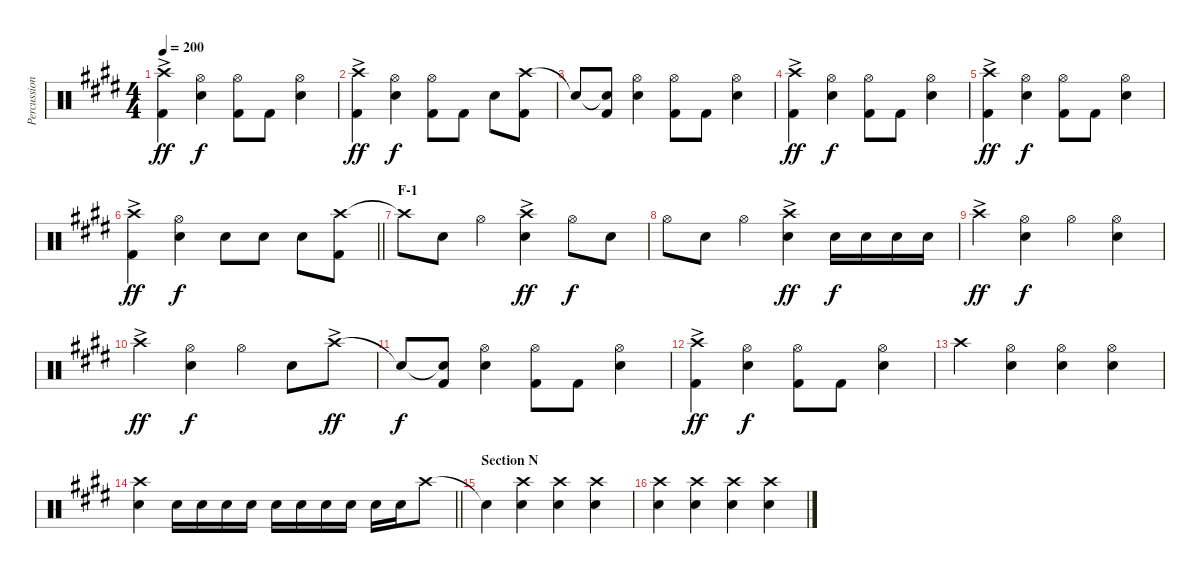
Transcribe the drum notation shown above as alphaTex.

\track ("Percussion - other" "Percussion") {instrument percussion}
\staff {score}
\articulation defaults
\ts (4 4)
\tempo 200
\clef neutral
\ks e
("Crash high (hit)"{ac} "Kick (hit) 2").4{dy ff} ("Hi-Hat (open)" "Snare (hit) 2").4{dy f} ("Hi-Hat (open)" "Kick (hit) 2").8 "Kick (hit) 2".8 ("Hi-Hat (open)" "Snare (hit) 2").4 |
("Crash high (hit)"{ac} "Kick (hit) 2").4{dy ff} ("Hi-Hat (open)" "Snare (hit) 2").4{dy f} ("Hi-Hat (open)" "Kick (hit) 2").8 "Kick (hit) 2".8 "Snare (hit) 2".8 ("Crash high (hit)" "Kick (hit) 2").8 |
"Snare (hit)"{t}.8 ("Snare (hit)"{t} "Kick (hit) 2").8 ("Hi-Hat (open)" "Snare (hit) 2").4 ("Hi-Hat (open)" "Kick (hit) 2").8 "Kick (hit) 2".8 ("Hi-Hat (open)" "Snare (hit) 2").4 |
("Crash high (hit)"{ac} "Kick (hit) 2").4{dy ff} ("Hi-Hat (open)" "Snare (hit) 2").4{dy f} ("Hi-Hat (open)" "Kick (hit) 2").8 "Kick (hit) 2".8 ("Hi-Hat (open)" "Snare (hit) 2").4 |
("Crash high (hit)"{ac} "Kick (hit) 2").4{dy ff} ("Hi-Hat (open)" "Snare (hit) 2").4{dy f} ("Hi-Hat (open)" "Kick (hit) 2").8 "Kick (hit) 2".8 ("Hi-Hat (open)" "Snare (hit) 2").4 |
\barLineRight lightlight
("Crash high (hit)"{ac} "Kick (hit) 2").4{dy ff} ("Hi-Hat (open)" "Snare (hit) 2").4{dy f} "Snare (hit) 2".8 "Snare (hit) 2".8 "Snare (hit) 2".8 ("Crash high (hit)" "Kick (hit) 2").8 |
\section ("" "F-1")
"Crash high (hit)"{t}.8 "Snare (hit) 2".8 "Hi-Hat (open)".4 ("Crash high (hit)"{ac} "Snare (hit) 2").4{dy ff} "Hi-Hat (open)".8{dy f} "Snare (hit) 2".8 |
"Hi-Hat (open)".8 "Snare (hit) 2".8 "Hi-Hat (open)".4 ("Crash high (hit)"{ac} "Snare (hit) 2").4{dy ff} "Snare (hit) 2".16{dy f} "Snare (hit) 2".16 "Snare (hit) 2".16 "Snare (hit) 2".16 |
"Crash high (hit)"{ac}.4{dy ff} ("Hi-Hat (open)" "Snare (hit) 2").4{dy f} "Hi-Hat (open)".4 ("Hi-Hat (open)" "Snare (hit) 2").4 |
"Crash high (hit)"{ac}.4{dy ff} ("Hi-Hat (open)" "Snare (hit) 2").4{dy f} "Hi-Hat (open)".4 "Snare (hit) 2".8 "Crash high (hit)"{ac}.8{dy ff} |
"Snare (hit)"{t}.8{dy f} ("Snare (hit)"{t} "Kick (hit) 2").8 ("Hi-Hat (open)" "Snare (hit) 2").4 ("Hi-Hat (open)" "Kick (hit) 2").8 "Kick (hit) 2".8 ("Hi-Hat (open)" "Snare (hit) 2").4 |
("Crash high (hit)"{ac} "Kick (hit) 2").4{dy ff} ("Hi-Hat (open)" "Snare (hit) 2").4{dy f} ("Hi-Hat (open)" "Kick (hit) 2").8 "Kick (hit) 2".8 ("Hi-Hat (open)" "Snare (hit) 2").4 |
"Crash high (hit)".4 ("Hi-Hat (open)" "Snare (hit) 2").4 ("Hi-Hat (open)" "Snare (hit) 2").4 ("Hi-Hat (open)" "Snare (hit) 2").4 |
\barLineRight lightlight
("Crash high (hit)" "Snare (hit) 2").4 "Snare (hit) 2".16 "Snare (hit) 2".16 "Snare (hit) 2".16 "Snare (hit) 2".16 "Snare (hit) 2".16 "Snare (hit) 2".16 "Snare (hit) 2".16 "Snare (hit) 2".16 "Snare (hit) 2".16 "Snare (hit) 2".16 "Crash high (hit)".8 |
\section ("" "Section N")
"Snare (hit)"{t}.4 ("Crash high (hit)" "Snare (hit) 2").4 ("Crash high (hit)" "Snare (hit) 2").4 ("Crash high (hit)" "Snare (hit) 2").4 |
("Crash high (hit)" "Snare (hit) 2").4 ("Crash high (hit)" "Snare (hit) 2").4 ("Crash high (hit)" "Snare (hit) 2").4 ("Crash high (hit)" "Snare (hit) 2").4
